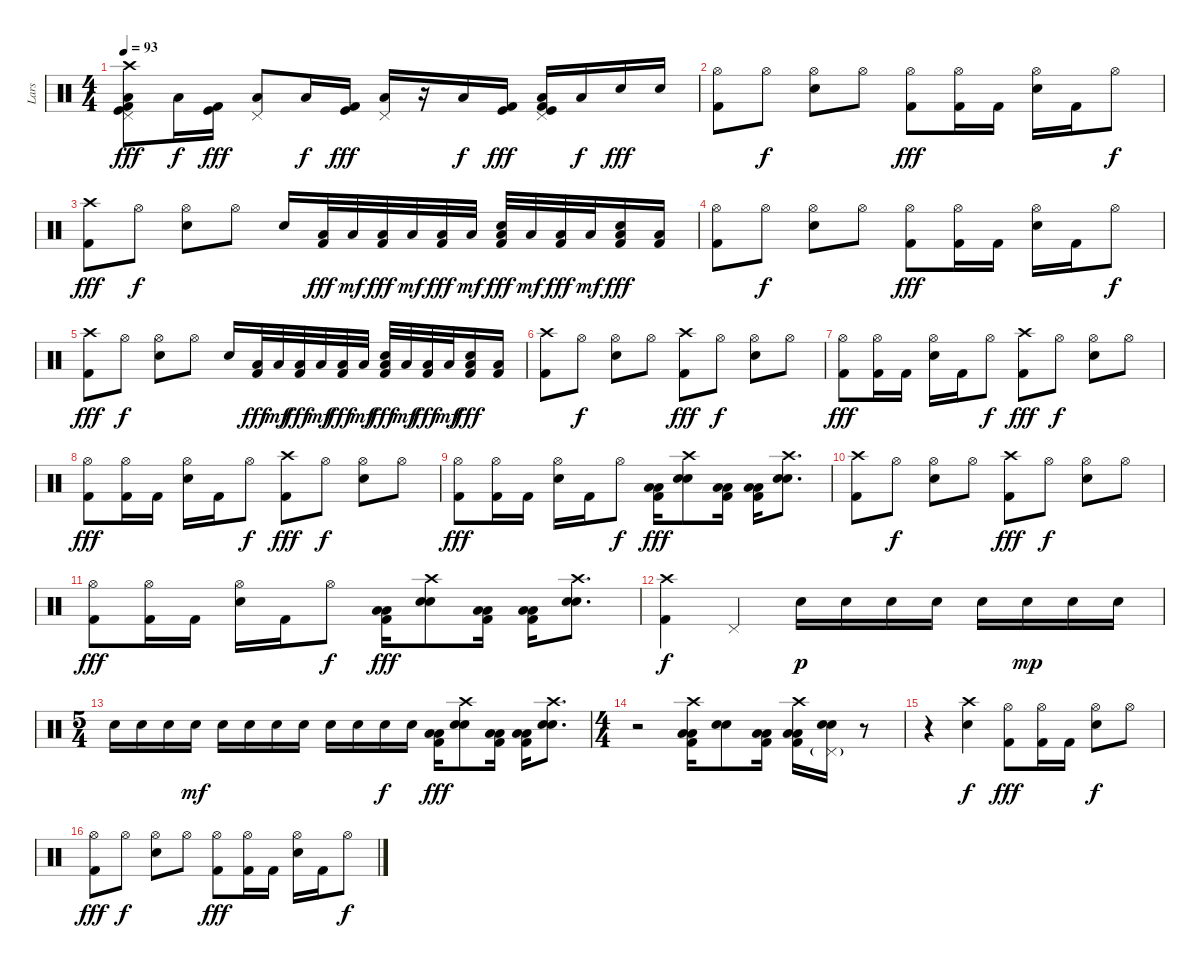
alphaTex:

\track ("Lars" "Lars") {instrument percussion}
\staff {score}
\articulation defaults
\ts (4 4)
\tempo 93
\clef neutral
\ks c
("Crash high (hit)" "Pedal Hi-Hat (hit)" "Low Floor Tom (hit)" "Kick (hit)" "Kick (hit) 2").8{dy fff} "Low Floor Tom (hit)".16{dy f} ("Kick (hit)" "Kick (hit) 2").16{dy fff} ("Pedal Hi-Hat (hit)" "Low Floor Tom (hit)").8 "Low Floor Tom (hit)".16{dy f} ("Kick (hit)" "Kick (hit) 2").16{dy fff} ("Pedal Hi-Hat (hit)" "Low Floor Tom (hit)").16 r.16 "Low Floor Tom (hit)".16{dy f} ("Kick (hit)" "Kick (hit) 2").16{dy fff} ("Pedal Hi-Hat (hit)" "Low Floor Tom (hit)" "Kick (hit)" "Kick (hit) 2").16 "Low Floor Tom (hit)".16{dy f} "Electric Snare (hit)".16{dy fff} "Electric Snare (hit)".16 |
("Hi-Hat (open)" "Kick (hit) 2").8 "Hi-Hat (open)".8{dy f} ("Hi-Hat (open)" "Snare (hit) 2").8 "Hi-Hat (open)".8 ("Hi-Hat (open)" "Kick (hit) 2").8{dy fff} ("Hi-Hat (open)" "Kick (hit) 2").16 "Kick (hit) 2".16 ("Hi-Hat (open)" "Snare (hit) 2").16 "Kick (hit) 2".16 "Hi-Hat (open)".8{dy f} |
("Crash high (hit)" "Kick (hit) 2").8{dy fff} "Hi-Hat (open)".8{dy f} ("Hi-Hat (open)" "Snare (hit) 2").8 "Hi-Hat (open)".8 "Snare (hit) 2".16 ("Low Floor Tom (hit)" "Kick (hit) 2").32{dy fff} "Low Floor Tom (hit)".32{dy mf} ("Low Floor Tom (hit)" "Kick (hit) 2").32{dy fff} "Low Floor Tom (hit)".32{dy mf} ("Low Floor Tom (hit)" "Kick (hit) 2").32{dy fff} "Low Floor Tom (hit)".32{dy mf} ("Snare (hit) 2" "Low Floor Tom (hit)" "Kick (hit) 2").32{dy fff} "Low Floor Tom (hit)".32{dy mf} ("Low Floor Tom (hit)" "Kick (hit) 2").32{dy fff} "Low Floor Tom (hit)".32{dy mf} ("Snare (hit) 2" "Low Floor Tom (hit)" "Kick (hit) 2").16{dy fff} ("Low Floor Tom (hit)" "Kick (hit) 2").16 |
("Hi-Hat (open)" "Kick (hit) 2").8 "Hi-Hat (open)".8{dy f} ("Hi-Hat (open)" "Snare (hit) 2").8 "Hi-Hat (open)".8 ("Hi-Hat (open)" "Kick (hit) 2").8{dy fff} ("Hi-Hat (open)" "Kick (hit) 2").16 "Kick (hit) 2".16 ("Hi-Hat (open)" "Snare (hit) 2").16 "Kick (hit) 2".16 "Hi-Hat (open)".8{dy f} |
("Crash high (hit)" "Kick (hit) 2").8{dy fff} "Hi-Hat (open)".8{dy f} ("Hi-Hat (open)" "Snare (hit) 2").8 "Hi-Hat (open)".8 "Snare (hit) 2".16 ("Low Floor Tom (hit)" "Kick (hit) 2").32{dy fff} "Low Floor Tom (hit)".32{dy mf} ("Low Floor Tom (hit)" "Kick (hit) 2").32{dy fff} "Low Floor Tom (hit)".32{dy mf} ("Low Floor Tom (hit)" "Kick (hit) 2").32{dy fff} "Low Floor Tom (hit)".32{dy mf} ("Snare (hit) 2" "Low Floor Tom (hit)" "Kick (hit) 2").32{dy fff} "Low Floor Tom (hit)".32{dy mf} ("Low Floor Tom (hit)" "Kick (hit) 2").32{dy fff} "Low Floor Tom (hit)".32{dy mf} ("Snare (hit) 2" "Low Floor Tom (hit)" "Kick (hit) 2").16{dy fff} ("Low Floor Tom (hit)" "Kick (hit) 2").16 |
("Crash high (hit)" "Kick (hit) 2").8 "Hi-Hat (open)".8{dy f} ("Hi-Hat (open)" "Snare (hit) 2").8 "Hi-Hat (open)".8 ("Crash high (hit)" "Kick (hit) 2").8{dy fff} "Hi-Hat (open)".8{dy f} ("Hi-Hat (open)" "Snare (hit) 2").8 "Hi-Hat (open)".8 |
("Hi-Hat (open)" "Kick (hit) 2").8{dy fff} ("Hi-Hat (open)" "Kick (hit) 2").16 "Kick (hit) 2".16 ("Hi-Hat (open)" "Snare (hit) 2").16 "Kick (hit) 2".16 "Hi-Hat (open)".8{dy f} ("Crash high (hit)" "Kick (hit) 2").8{dy fff} "Hi-Hat (open)".8{dy f} ("Hi-Hat (open)" "Snare (hit) 2").8 "Hi-Hat (open)".8 |
("Hi-Hat (open)" "Kick (hit) 2").8{dy fff} ("Hi-Hat (open)" "Kick (hit) 2").16 "Kick (hit) 2".16 ("Hi-Hat (open)" "Snare (hit) 2").16 "Kick (hit) 2".16 "Hi-Hat (open)".8{dy f} ("Crash high (hit)" "Kick (hit) 2").8{dy fff} "Hi-Hat (open)".8{dy f} ("Hi-Hat (open)" "Snare (hit) 2").8 "Hi-Hat (open)".8 |
("Hi-Hat (open)" "Kick (hit) 2").8{dy fff} ("Hi-Hat (open)" "Kick (hit) 2").16 "Kick (hit) 2".16 ("Hi-Hat (open)" "Snare (hit) 2").16 "Kick (hit) 2".16 "Hi-Hat (open)".8{dy f} ("Low Tom (hit)" "Low Floor Tom (hit)" "Kick (hit) 2").16{dy fff} ("Crash high (hit)" "Electric Snare (hit)" "Snare (hit) 2").8 ("Low Tom (hit)" "Low Floor Tom (hit)" "Kick (hit) 2").16 ("Low Tom (hit)" "Low Floor Tom (hit)" "Kick (hit) 2").16 ("Crash high (hit)" "Electric Snare (hit)" "Snare (hit) 2").8{d} |
("Crash high (hit)" "Kick (hit) 2").8 "Hi-Hat (open)".8{dy f} ("Hi-Hat (open)" "Snare (hit) 2").8 "Hi-Hat (open)".8 ("Crash high (hit)" "Kick (hit) 2").8{dy fff} "Hi-Hat (open)".8{dy f} ("Hi-Hat (open)" "Snare (hit) 2").8 "Hi-Hat (open)".8 |
("Hi-Hat (open)" "Kick (hit) 2").8{dy fff} ("Hi-Hat (open)" "Kick (hit) 2").16 "Kick (hit) 2".16 ("Hi-Hat (open)" "Snare (hit) 2").16 "Kick (hit) 2".16 "Hi-Hat (open)".8{dy f} ("Low Tom (hit)" "Low Floor Tom (hit)" "Kick (hit) 2").16{dy fff} ("Crash high (hit)" "Electric Snare (hit)" "Snare (hit) 2").8 ("Low Tom (hit)" "Low Floor Tom (hit)" "Kick (hit) 2").16 ("Low Tom (hit)" "Low Floor Tom (hit)" "Kick (hit) 2").16 ("Crash high (hit)" "Electric Snare (hit)" "Snare (hit) 2").8{d} |
("Crash high (hit)" "Kick (hit) 2").4{dy f} "Pedal Hi-Hat (hit)".4 "Snare (hit) 2".16{dy p} "Snare (hit) 2".16 "Snare (hit) 2".16 "Snare (hit) 2".16 "Snare (hit) 2".16 "Snare (hit) 2".16{dy mp} "Snare (hit) 2".16 "Snare (hit) 2".16 |
\ts (5 4)
"Snare (hit) 2".16 "Snare (hit) 2".16 "Snare (hit) 2".16 "Snare (hit) 2".16{dy mf} "Snare (hit) 2".16 "Snare (hit) 2".16 "Snare (hit) 2".16 "Snare (hit) 2".16 "Snare (hit) 2".16 "Snare (hit) 2".16 "Snare (hit) 2".16{dy f} "Snare (hit) 2".16 ("Low Tom (hit)" "Low Floor Tom (hit)" "Kick (hit) 2").16{dy fff} ("Crash high (hit)" "Electric Snare (hit)" "Snare (hit) 2").8 ("Low Tom (hit)" "Low Floor Tom (hit)" "Kick (hit) 2").16 ("Low Tom (hit)" "Low Floor Tom (hit)" "Kick (hit) 2").16 ("Crash high (hit)" "Electric Snare (hit)" "Snare (hit) 2").8{d} |
\ts (4 4)
r.2 ("Crash high (hit)" "Low Tom (hit)" "Low Floor Tom (hit)" "Kick (hit) 2").16 ("Electric Snare (hit)" "Snare (hit) 2").8 ("Low Tom (hit)" "Low Floor Tom (hit)" "Kick (hit) 2").16 ("Crash high (hit)" "Low Tom (hit)" "Low Floor Tom (hit)" "Kick (hit) 2").16 ("Pedal Hi-Hat (hit)"{g} "Electric Snare (hit)" "Snare (hit) 2").16 r.8 |
r.4 ("Crash high (hit)" "Snare (hit) 2").4{dy f} ("Hi-Hat (open)" "Kick (hit) 2").8{dy fff} ("Hi-Hat (open)" "Kick (hit) 2").16 "Kick (hit) 2".16 ("Hi-Hat (open)" "Snare (hit) 2").8{dy f} "Hi-Hat (open)".8 |
("Hi-Hat (open)" "Kick (hit) 2").8{dy fff} "Hi-Hat (open)".8{dy f} ("Hi-Hat (open)" "Snare (hit) 2").8 "Hi-Hat (open)".8 ("Hi-Hat (open)" "Kick (hit) 2").8{dy fff} ("Hi-Hat (open)" "Kick (hit) 2").16 "Kick (hit) 2".16 ("Hi-Hat (open)" "Snare (hit) 2").16 "Kick (hit) 2".16 "Hi-Hat (open)".8{dy f}
